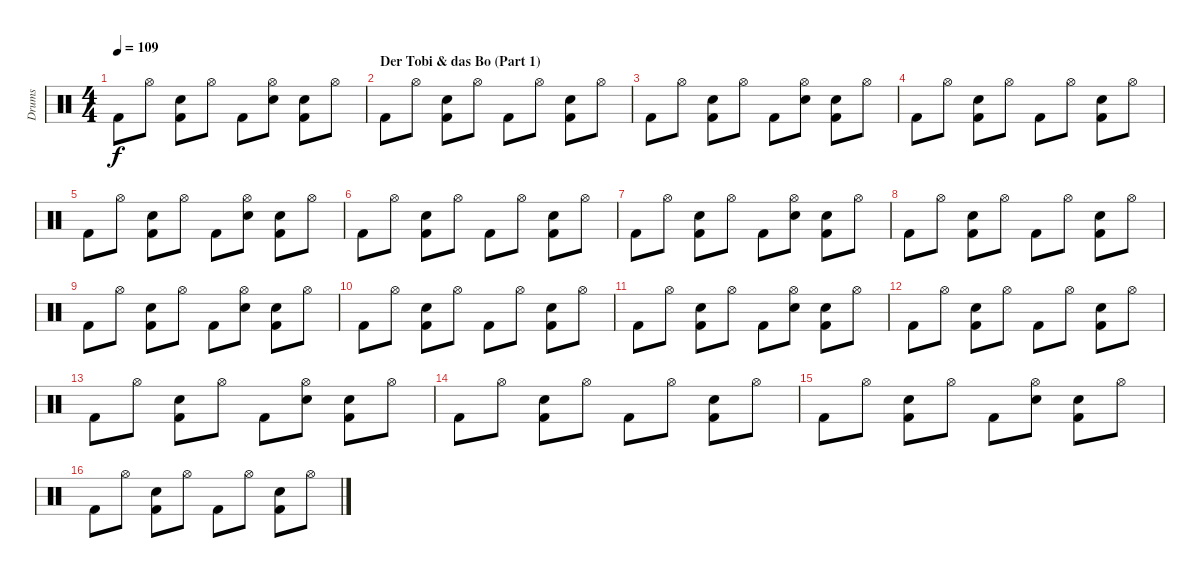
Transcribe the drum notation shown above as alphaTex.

\track ("Drums" "Drums") {instrument percussion}
\staff {score}
\articulation defaults
\ts (4 4)
\tempo 109
\clef neutral
\ks c "Kick (hit) 2".8{dy f} "Hi-Hat (open)".8
("Hand Clap (hit)" "Kick (hit) 2").8 "Hi-Hat (open)".8 "Kick (hit) 2".8 ("Hi-Hat (open)" "Hand Clap (hit)").8 ("Hand Clap (hit)" "Kick (hit) 2").8 "Hi-Hat (open)".8 |
\section ("" "Der Tobi & das Bo (Part 1)")
"Kick (hit) 2".8 "Hi-Hat (open)".8 ("Hand Clap (hit)" "Kick (hit) 2").8 "Hi-Hat (open)".8 "Kick (hit) 2".8 "Hi-Hat (open)".8 ("Hand Clap (hit)" "Kick (hit) 2").8 "Hi-Hat (open)".8 |
"Kick (hit) 2".8 "Hi-Hat (open)".8 ("Hand Clap (hit)" "Kick (hit) 2").8 "Hi-Hat (open)".8 "Kick (hit) 2".8 ("Hi-Hat (open)" "Hand Clap (hit)").8 ("Hand Clap (hit)" "Kick (hit) 2").8 "Hi-Hat (open)".8 |
"Kick (hit) 2".8 "Hi-Hat (open)".8 ("Hand Clap (hit)" "Kick (hit) 2").8 "Hi-Hat (open)".8 "Kick (hit) 2".8 "Hi-Hat (open)".8 ("Hand Clap (hit)" "Kick (hit) 2").8 "Hi-Hat (open)".8 |
"Kick (hit) 2".8 "Hi-Hat (open)".8 ("Hand Clap (hit)" "Kick (hit) 2").8 "Hi-Hat (open)".8 "Kick (hit) 2".8 ("Hi-Hat (open)" "Hand Clap (hit)").8 ("Hand Clap (hit)" "Kick (hit) 2").8 "Hi-Hat (open)".8 |
"Kick (hit) 2".8 "Hi-Hat (open)".8 ("Hand Clap (hit)" "Kick (hit) 2").8 "Hi-Hat (open)".8 "Kick (hit) 2".8 "Hi-Hat (open)".8 ("Hand Clap (hit)" "Kick (hit) 2").8 "Hi-Hat (open)".8 |
"Kick (hit) 2".8 "Hi-Hat (open)".8 ("Hand Clap (hit)" "Kick (hit) 2").8 "Hi-Hat (open)".8 "Kick (hit) 2".8 ("Hi-Hat (open)" "Hand Clap (hit)").8 ("Hand Clap (hit)" "Kick (hit) 2").8 "Hi-Hat (open)".8 |
"Kick (hit) 2".8 "Hi-Hat (open)".8 ("Hand Clap (hit)" "Kick (hit) 2").8 "Hi-Hat (open)".8 "Kick (hit) 2".8 "Hi-Hat (open)".8 ("Hand Clap (hit)" "Kick (hit) 2").8 "Hi-Hat (open)".8 |
"Kick (hit) 2".8 "Hi-Hat (open)".8 ("Hand Clap (hit)" "Kick (hit) 2").8 "Hi-Hat (open)".8 "Kick (hit) 2".8 ("Hi-Hat (open)" "Hand Clap (hit)").8 ("Hand Clap (hit)" "Kick (hit) 2").8 "Hi-Hat (open)".8 |
"Kick (hit) 2".8 "Hi-Hat (open)".8 ("Hand Clap (hit)" "Kick (hit) 2").8 "Hi-Hat (open)".8 "Kick (hit) 2".8 "Hi-Hat (open)".8 ("Hand Clap (hit)" "Kick (hit) 2").8 "Hi-Hat (open)".8 |
"Kick (hit) 2".8 "Hi-Hat (open)".8 ("Hand Clap (hit)" "Kick (hit) 2").8 "Hi-Hat (open)".8 "Kick (hit) 2".8 ("Hi-Hat (open)" "Hand Clap (hit)").8 ("Hand Clap (hit)" "Kick (hit) 2").8 "Hi-Hat (open)".8 |
"Kick (hit) 2".8 "Hi-Hat (open)".8 ("Hand Clap (hit)" "Kick (hit) 2").8 "Hi-Hat (open)".8 "Kick (hit) 2".8 "Hi-Hat (open)".8 ("Hand Clap (hit)" "Kick (hit) 2").8 "Hi-Hat (open)".8 |
"Kick (hit) 2".8 "Hi-Hat (open)".8 ("Hand Clap (hit)" "Kick (hit) 2").8 "Hi-Hat (open)".8 "Kick (hit) 2".8 ("Hi-Hat (open)" "Hand Clap (hit)").8 ("Hand Clap (hit)" "Kick (hit) 2").8 "Hi-Hat (open)".8 |
"Kick (hit) 2".8 "Hi-Hat (open)".8 ("Hand Clap (hit)" "Kick (hit) 2").8 "Hi-Hat (open)".8 "Kick (hit) 2".8 "Hi-Hat (open)".8 ("Hand Clap (hit)" "Kick (hit) 2").8 "Hi-Hat (open)".8 |
"Kick (hit) 2".8 "Hi-Hat (open)".8 ("Hand Clap (hit)" "Kick (hit) 2").8 "Hi-Hat (open)".8 "Kick (hit) 2".8 ("Hi-Hat (open)" "Hand Clap (hit)").8 ("Hand Clap (hit)" "Kick (hit) 2").8 "Hi-Hat (open)".8 |
"Kick (hit) 2".8 "Hi-Hat (open)".8 ("Hand Clap (hit)" "Kick (hit) 2").8 "Hi-Hat (open)".8 "Kick (hit) 2".8 "Hi-Hat (open)".8 ("Hand Clap (hit)" "Kick (hit) 2").8 "Hi-Hat (open)".8
